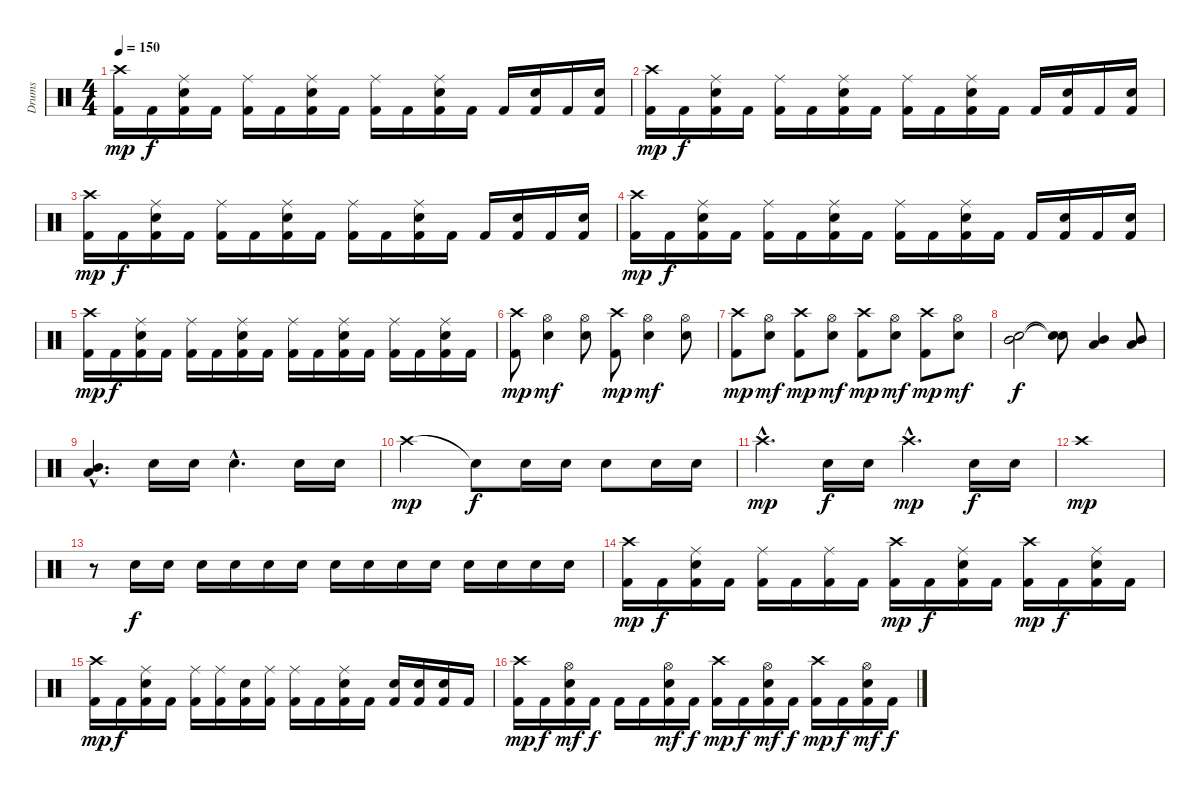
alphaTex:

\track ("Drums" "Drums") {instrument percussion}
\staff {score}
\articulation defaults
\ts (4 4)
\tempo 150
\clef neutral
\ks c
("Crash high (hit)" "Kick (hit) 2").16{dy mp} "Kick (hit) 2".16{dy f} ("Ride (middle)" "Electric Snare (hit)" "Kick (hit) 2").16 "Kick (hit) 2".16 ("Ride (middle)" "Kick (hit) 2").16 "Kick (hit) 2".16 ("Ride (middle)" "Electric Snare (hit)" "Kick (hit) 2").16 "Kick (hit) 2".16 ("Ride (middle)" "Kick (hit) 2").16 "Kick (hit) 2".16 ("Ride (middle)" "Electric Snare (hit)" "Kick (hit) 2").16 "Kick (hit) 2".16 "Kick (hit) 2".16 ("Electric Snare (hit)" "Kick (hit) 2").16 "Kick (hit) 2".16 ("Electric Snare (hit)" "Kick (hit) 2").16 |
("Crash high (hit)" "Kick (hit) 2").16{dy mp} "Kick (hit) 2".16{dy f} ("Ride (middle)" "Electric Snare (hit)" "Kick (hit) 2").16 "Kick (hit) 2".16 ("Ride (middle)" "Kick (hit) 2").16 "Kick (hit) 2".16 ("Ride (middle)" "Electric Snare (hit)" "Kick (hit) 2").16 "Kick (hit) 2".16 ("Ride (middle)" "Kick (hit) 2").16 "Kick (hit) 2".16 ("Ride (middle)" "Electric Snare (hit)" "Kick (hit) 2").16 "Kick (hit) 2".16 "Kick (hit) 2".16 ("Electric Snare (hit)" "Kick (hit) 2").16 "Kick (hit) 2".16 ("Electric Snare (hit)" "Kick (hit) 2").16 |
("Crash high (hit)" "Kick (hit) 2").16{dy mp} "Kick (hit) 2".16{dy f} ("Ride (middle)" "Electric Snare (hit)" "Kick (hit) 2").16 "Kick (hit) 2".16 ("Ride (middle)" "Kick (hit) 2").16 "Kick (hit) 2".16 ("Ride (middle)" "Electric Snare (hit)" "Kick (hit) 2").16 "Kick (hit) 2".16 ("Ride (middle)" "Kick (hit) 2").16 "Kick (hit) 2".16 ("Ride (middle)" "Electric Snare (hit)" "Kick (hit) 2").16 "Kick (hit) 2".16 "Kick (hit) 2".16 ("Electric Snare (hit)" "Kick (hit) 2").16 "Kick (hit) 2".16 ("Electric Snare (hit)" "Kick (hit) 2").16 |
("Crash high (hit)" "Kick (hit) 2").16{dy mp} "Kick (hit) 2".16{dy f} ("Ride (middle)" "Electric Snare (hit)" "Kick (hit) 2").16 "Kick (hit) 2".16 ("Ride (middle)" "Kick (hit) 2").16 "Kick (hit) 2".16 ("Ride (middle)" "Electric Snare (hit)" "Kick (hit) 2").16 "Kick (hit) 2".16 ("Ride (middle)" "Kick (hit) 2").16 "Kick (hit) 2".16 ("Ride (middle)" "Electric Snare (hit)" "Kick (hit) 2").16 "Kick (hit) 2".16 "Kick (hit) 2".16 ("Electric Snare (hit)" "Kick (hit) 2").16 "Kick (hit) 2".16 ("Electric Snare (hit)" "Kick (hit) 2").16 |
("Crash high (hit)" "Kick (hit) 2").16{dy mp} "Kick (hit) 2".16{dy f} ("Ride (middle)" "Electric Snare (hit)" "Kick (hit) 2").16 "Kick (hit) 2".16 ("Ride (middle)" "Kick (hit) 2").16 "Kick (hit) 2".16 ("Ride (middle)" "Electric Snare (hit)" "Kick (hit) 2").16 "Kick (hit) 2".16 ("Ride (middle)" "Kick (hit) 2").16 "Kick (hit) 2".16 ("Ride (middle)" "Electric Snare (hit)" "Kick (hit) 2").16 "Kick (hit) 2".16 ("Ride (middle)" "Kick (hit) 2").16 "Kick (hit) 2".16 ("Ride (middle)" "Electric Snare (hit)" "Kick (hit) 2").16 "Kick (hit) 2".16 |
("Crash high (hit)" "Kick (hit) 2").8{dy mp} ("Hi-Hat (open)" "Electric Snare (hit)").4{dy mf} ("Hi-Hat (open)" "Electric Snare (hit)").8 ("Crash high (hit)" "Kick (hit) 2").8{dy mp} ("Hi-Hat (open)" "Electric Snare (hit)").4{dy mf} ("Hi-Hat (open)" "Electric Snare (hit)").8 |
("Crash high (hit)" "Kick (hit) 2").8{dy mp} ("Hi-Hat (open)" "Electric Snare (hit)").8{dy mf} ("Crash high (hit)" "Kick (hit) 2").8{dy mp} ("Hi-Hat (open)" "Electric Snare (hit)").8{dy mf} ("Crash high (hit)" "Kick (hit) 2").8{dy mp} ("Hi-Hat (open)" "Electric Snare (hit)").8{dy mf} ("Crash high (hit)" "Kick (hit) 2").8{dy mp} ("Hi-Hat (open)" "Electric Snare (hit)").8{dy mf} |
("Electric Snare (hit)" "Mid Tom (hit)").2{dy f} ("Snare (hit)"{t} "Snare (hit)"{t}).8 ("Mid Tom (hit)" "Low Floor Tom (hit)").4 ("Mid Tom (hit)" "Low Floor Tom (hit)").8 |
("Mid Tom (hit)"{hac} "Low Floor Tom (hit)"{hac}).4{d} "Electric Snare (hit)".16 "Electric Snare (hit)".16 "Electric Snare (hit)"{hac}.4{d} "Electric Snare (hit)".16 "Electric Snare (hit)".16 |
"Crash high (hit)".2{dy mp} "Snare (hit)"{t}.8{dy f} "Electric Snare (hit)".16 "Electric Snare (hit)".16 "Electric Snare (hit)".8 "Electric Snare (hit)".16 "Electric Snare (hit)".16 |
"Crash high (hit)"{hac}.4{d dy mp} "Electric Snare (hit)".16{dy f} "Electric Snare (hit)".16 "Crash high (hit)"{hac}.4{d dy mp} "Electric Snare (hit)".16{dy f} "Electric Snare (hit)".16 |
"Crash high (hit)".1{dy mp} |
r.8 "Electric Snare (hit)".16{dy f} "Electric Snare (hit)".16 "Electric Snare (hit)".16 "Electric Snare (hit)".16 "Electric Snare (hit)".16 "Electric Snare (hit)".16 "Electric Snare (hit)".16 "Electric Snare (hit)".16 "Electric Snare (hit)".16 "Electric Snare (hit)".16 "Electric Snare (hit)".16 "Electric Snare (hit)".16 "Electric Snare (hit)".16 "Electric Snare (hit)".16 |
("Crash high (hit)" "Kick (hit) 2").16{dy mp} "Kick (hit) 2".16{dy f} ("Ride (middle)" "Electric Snare (hit)" "Kick (hit) 2").16 "Kick (hit) 2".16 ("Ride (middle)" "Kick (hit) 2").16 "Kick (hit) 2".16 ("Ride (middle)" "Kick (hit) 2").16 "Kick (hit) 2".16 ("Crash high (hit)" "Kick (hit) 2").16{dy mp} "Kick (hit) 2".16{dy f} ("Ride (middle)" "Electric Snare (hit)" "Kick (hit) 2").16 "Kick (hit) 2".16 ("Crash high (hit)" "Kick (hit) 2").16{dy mp} "Kick (hit) 2".16{dy f} ("Ride (middle)" "Electric Snare (hit)" "Kick (hit) 2").16 "Kick (hit) 2".16 |
("Crash high (hit)" "Kick (hit) 2").16{dy mp} "Kick (hit) 2".16{dy f} ("Ride (middle)" "Electric Snare (hit)" "Kick (hit) 2").16 "Kick (hit) 2".16 ("Ride (middle)" "Kick (hit) 2").16 ("Ride (middle)" "Kick (hit) 2").16 ("Electric Snare (hit)" "Kick (hit) 2").16 ("Ride (middle)" "Kick (hit) 2").16 ("Ride (middle)" "Kick (hit) 2").16 "Kick (hit) 2".16 ("Ride (middle)" "Electric Snare (hit)" "Kick (hit) 2").16 "Kick (hit) 2".16 ("Electric Snare (hit)" "Kick (hit) 2").16 ("Electric Snare (hit)" "Kick (hit) 2").16 ("Electric Snare (hit)" "Kick (hit) 2").16 "Kick (hit) 2".16 |
("Crash high (hit)" "Kick (hit) 2").16{dy mp} "Kick (hit) 2".16{dy f} ("Hi-Hat (open)" "Electric Snare (hit)" "Kick (hit) 2").16{dy mf} "Kick (hit) 2".16{dy f} "Kick (hit) 2".16 "Kick (hit) 2".16 ("Hi-Hat (open)" "Electric Snare (hit)" "Kick (hit) 2").16{dy mf} "Kick (hit) 2".16{dy f} ("Crash high (hit)" "Kick (hit) 2").16{dy mp} "Kick (hit) 2".16{dy f} ("Hi-Hat (open)" "Electric Snare (hit)" "Kick (hit) 2").16{dy mf} "Kick (hit) 2".16{dy f} ("Crash high (hit)" "Kick (hit) 2").16{dy mp} "Kick (hit) 2".16{dy f} ("Hi-Hat (open)" "Electric Snare (hit)" "Kick (hit) 2").16{dy mf} "Kick (hit) 2".16{dy f}
